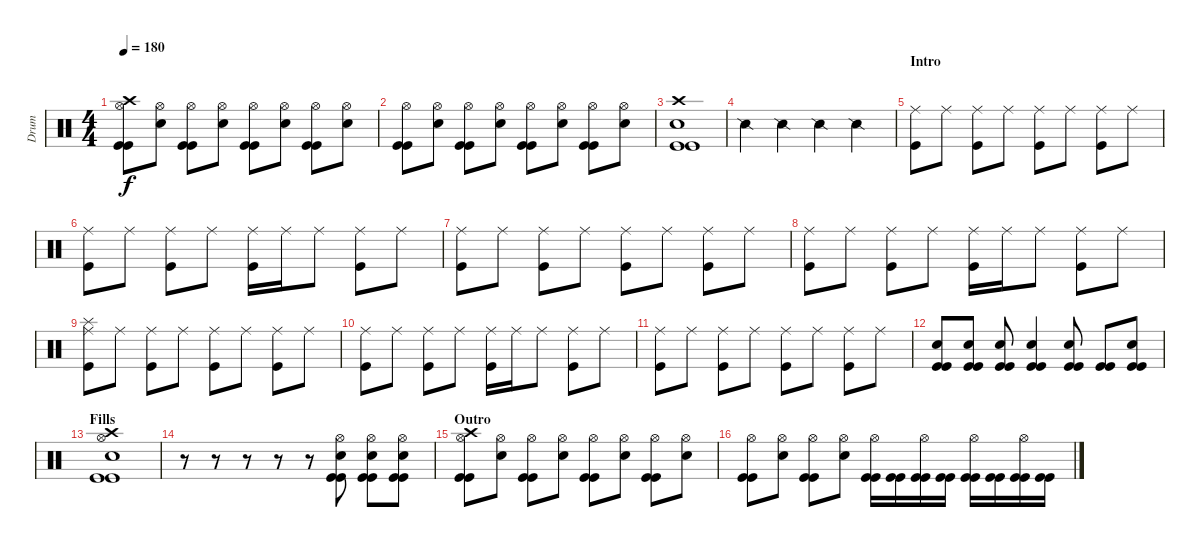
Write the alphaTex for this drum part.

\track ("Drum" "Drum") {instrument percussion}
\staff {score}
\articulation defaults
\ts (4 4)
\tempo 180
\clef neutral
\ks c
("Hi-Hat (open)" "Kick (hit)" "Kick (hit)" "Crash high (hit)").8{dy f} ("Hi-Hat (open)" "Electric Snare (hit)").8 ("Hi-Hat (open)" "Kick (hit)" "Kick (hit)").8 ("Hi-Hat (open)" "Electric Snare (hit)").8 ("Hi-Hat (open)" "Kick (hit)" "Kick (hit)").8 ("Hi-Hat (open)" "Electric Snare (hit)").8 ("Hi-Hat (open)" "Kick (hit)" "Kick (hit)").8 ("Hi-Hat (open)" "Electric Snare (hit)").8 |
("Hi-Hat (open)" "Kick (hit)" "Kick (hit)").8 ("Hi-Hat (open)" "Electric Snare (hit)").8 ("Hi-Hat (open)" "Kick (hit)" "Kick (hit)").8 ("Hi-Hat (open)" "Electric Snare (hit)").8 ("Hi-Hat (open)" "Kick (hit)" "Kick (hit)").8 ("Hi-Hat (open)" "Electric Snare (hit)").8 ("Hi-Hat (open)" "Kick (hit)" "Kick (hit)").8 ("Hi-Hat (open)" "Electric Snare (hit)").8 |
("Crash high (hit)" "Kick (hit)" "Kick (hit)" "Electric Snare (hit)").1 |
"Snare (side stick) 2".4{volume 7} "Snare (side stick) 2".4 "Snare (side stick) 2".4 "Snare (side stick) 2".4 |
\section ("" "Intro")
("Ride (middle)" "Kick (hit)").8{volume 13} "Ride (middle)".8 ("Ride (middle)" "Kick (hit)").8 "Ride (middle)".8 ("Ride (middle)" "Kick (hit)").8 "Ride (middle)".8 ("Ride (middle)" "Kick (hit)").8 "Ride (middle)".8 |
("Ride (middle)" "Kick (hit)").8 "Ride (middle)".8 ("Ride (middle)" "Kick (hit)").8 "Ride (middle)".8 ("Ride (middle)" "Kick (hit)").16 "Ride (middle)".16 "Ride (middle)".8 ("Ride (middle)" "Kick (hit)").8 "Ride (middle)".8 |
("Ride (middle)" "Kick (hit)").8 "Ride (middle)".8 ("Ride (middle)" "Kick (hit)").8 "Ride (middle)".8 ("Ride (middle)" "Kick (hit)").8 "Ride (middle)".8 ("Ride (middle)" "Kick (hit)").8 "Ride (middle)".8 |
("Ride (middle)" "Kick (hit)").8 "Ride (middle)".8 ("Ride (middle)" "Kick (hit)").8 "Ride (middle)".8 ("Ride (middle)" "Kick (hit)").16 "Ride (middle)".16 "Ride (middle)".8 ("Ride (middle)" "Kick (hit)").8 "Ride (middle)".8 |
("Ride (middle)" "Kick (hit)" "Splash (hit)").8 "Ride (middle)".8 ("Ride (middle)" "Kick (hit)").8 "Ride (middle)".8 ("Ride (middle)" "Kick (hit)").8 "Ride (middle)".8 ("Ride (middle)" "Kick (hit)").8 "Ride (middle)".8 |
("Ride (middle)" "Kick (hit)").8 "Ride (middle)".8 ("Ride (middle)" "Kick (hit)").8 "Ride (middle)".8 ("Ride (middle)" "Kick (hit)").16 "Ride (middle)".16 "Ride (middle)".8 ("Ride (middle)" "Kick (hit)").8 "Ride (middle)".8 |
("Ride (middle)" "Kick (hit)").8 "Ride (middle)".8 ("Ride (middle)" "Kick (hit)").8 "Ride (middle)".8 ("Ride (middle)" "Kick (hit)").8 "Ride (middle)".8 ("Ride (middle)" "Kick (hit)").8 "Ride (middle)".8 |
("Kick (hit)" "Kick (hit)" "Electric Snare (hit)").8 ("Kick (hit)" "Kick (hit)" "Electric Snare (hit)").8 ("Kick (hit)" "Kick (hit)" "Electric Snare (hit)").8 ("Kick (hit)" "Kick (hit)" "Electric Snare (hit)").4 ("Kick (hit)" "Kick (hit)" "Electric Snare (hit)").8 ("Kick (hit)" "Kick (hit)").8 ("Kick (hit)" "Kick (hit)" "Electric Snare (hit)").8 |
\section ("" "Fills")
("Hi-Hat (open)" "Kick (hit)" "Kick (hit)" "Electric Snare (hit)" "Crash high (hit)").1 |
r.8 r.8 r.8 r.8 r.8 ("Hi-Hat (open)" "Kick (hit)" "Kick (hit)" "Electric Snare (hit)").8 ("Hi-Hat (open)" "Kick (hit)" "Kick (hit)" "Electric Snare (hit)").8 ("Hi-Hat (open)" "Kick (hit)" "Kick (hit)" "Electric Snare (hit)").8 |
\section ("" "Outro")
("Hi-Hat (open)" "Kick (hit)" "Kick (hit)" "Crash high (hit)").8 ("Hi-Hat (open)" "Electric Snare (hit)").8 ("Hi-Hat (open)" "Kick (hit)" "Kick (hit)").8 ("Hi-Hat (open)" "Electric Snare (hit)").8 ("Hi-Hat (open)" "Kick (hit)" "Kick (hit)").8 ("Hi-Hat (open)" "Electric Snare (hit)").8 ("Hi-Hat (open)" "Kick (hit)" "Kick (hit)").8 ("Hi-Hat (open)" "Electric Snare (hit)").8 |
("Hi-Hat (open)" "Kick (hit)" "Kick (hit)").8 ("Hi-Hat (open)" "Electric Snare (hit)").8 ("Hi-Hat (open)" "Kick (hit)" "Kick (hit)").8 ("Hi-Hat (open)" "Electric Snare (hit)").8 ("Hi-Hat (open)" "Kick (hit)" "Kick (hit)").16 ("Kick (hit)" "Kick (hit)").16 ("Hi-Hat (open)" "Kick (hit)" "Kick (hit)").16 ("Kick (hit)" "Kick (hit)").16 ("Hi-Hat (open)" "Kick (hit)" "Kick (hit)").16 ("Kick (hit)" "Kick (hit)").16 ("Hi-Hat (open)" "Kick (hit)" "Kick (hit)").16 ("Kick (hit)" "Kick (hit)").16
